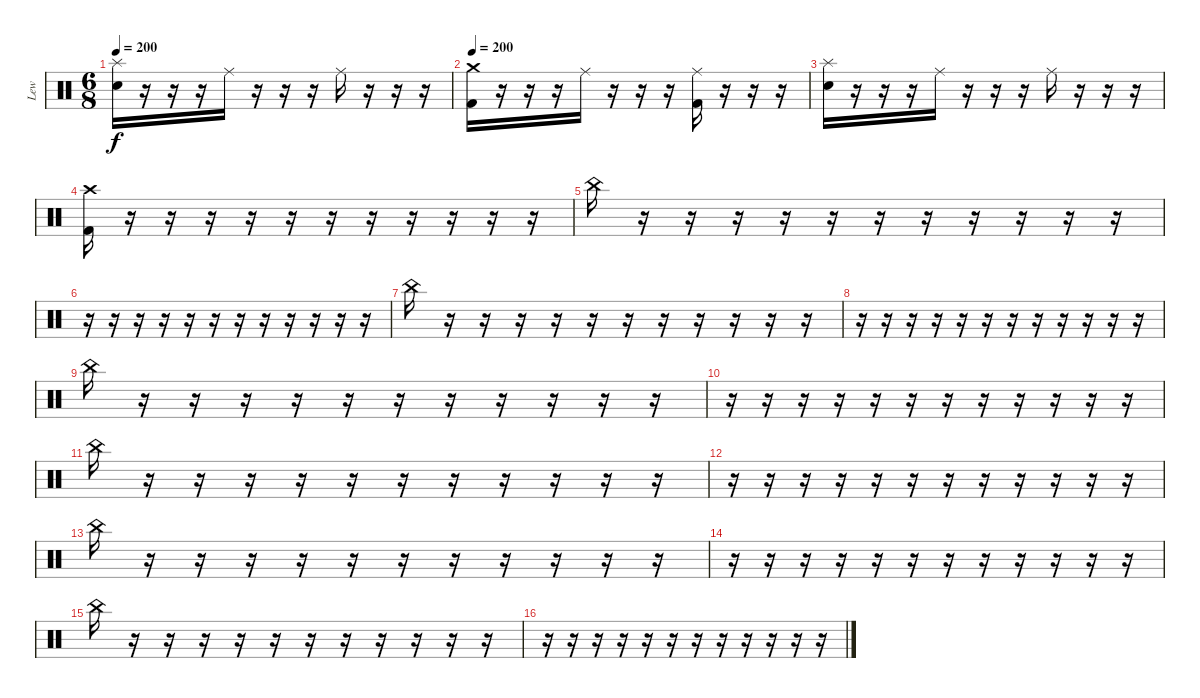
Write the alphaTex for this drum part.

\track ("Lew" "Lew") {instrument percussion}
\staff {score}
\articulation defaults
\ts (6 8)
\tempo 200
\clef neutral
\ks c
("Splash (hit)" "Electric Snare (hit)").16{dy f} r.16 r.16 r.16 "Ride (middle)".16 r.16 r.16 r.16 "Ride (middle)".16 r.16 r.16 r.16 |
\tempo 200
("Crash medium (hit)" "Kick (hit) 2").16 r.16 r.16 r.16 "Ride (middle)".16 r.16 r.16 r.16 ("Ride (middle)" "Kick (hit) 2").16 r.16 r.16 r.16 |
("Splash (hit)" "Electric Snare (hit)").16 r.16 r.16 r.16 "Ride (middle)".16 r.16 r.16 r.16 "Ride (middle)".16 r.16 r.16 r.16 |
("Crash high (hit)" "Kick (hit) 2").16 r.16 r.16 r.16 r.16 r.16 r.16 r.16 r.16 r.16 r.16 r.16 |
"China (hit)".16 r.16 r.16 r.16 r.16 r.16 r.16 r.16 r.16 r.16 r.16 r.16 |
r.16 r.16 r.16 r.16 r.16 r.16 r.16 r.16 r.16 r.16 r.16 r.16 |
"China (hit)".16 r.16 r.16 r.16 r.16 r.16 r.16 r.16 r.16 r.16 r.16 r.16 |
r.16 r.16 r.16 r.16 r.16 r.16 r.16 r.16 r.16 r.16 r.16 r.16 |
"China (hit)".16 r.16 r.16 r.16 r.16 r.16 r.16 r.16 r.16 r.16 r.16 r.16 |
r.16 r.16 r.16 r.16 r.16 r.16 r.16 r.16 r.16 r.16 r.16 r.16 |
"China (hit)".16 r.16 r.16 r.16 r.16 r.16 r.16 r.16 r.16 r.16 r.16 r.16 |
r.16 r.16 r.16 r.16 r.16 r.16 r.16 r.16 r.16 r.16 r.16 r.16 |
"China (hit)".16 r.16 r.16 r.16 r.16 r.16 r.16 r.16 r.16 r.16 r.16 r.16 |
r.16 r.16 r.16 r.16 r.16 r.16 r.16 r.16 r.16 r.16 r.16 r.16 |
"China (hit)".16 r.16 r.16 r.16 r.16 r.16 r.16 r.16 r.16 r.16 r.16 r.16 |
r.16 r.16 r.16 r.16 r.16 r.16 r.16 r.16 r.16 r.16 r.16 r.16
